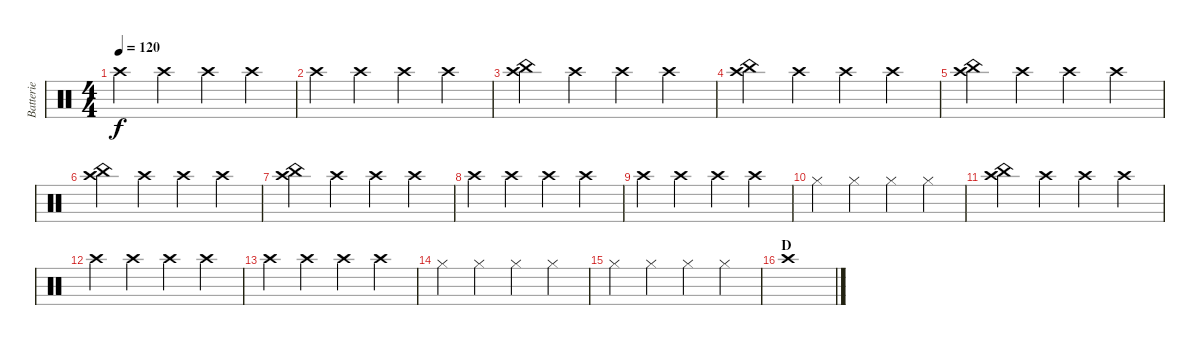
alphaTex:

\track ("Batterie" "Batterie") {instrument percussion}
\staff {score}
\articulation defaults
\ts (4 4)
\tempo 120
\clef neutral
\ks c "Crash high (hit)".4{dy f} "Crash high (hit)".4 "Crash high (hit)".4 "Crash high (hit)".4
|
"Crash high (hit)".4 "Crash high (hit)".4 "Crash high (hit)".4 "Crash high (hit)".4 |
("China (hit)" "Crash high (hit)").4 "Crash high (hit)".4 "Crash high (hit)".4 "Crash high (hit)".4 |
("China (hit)" "Crash high (hit)").4 "Crash high (hit)".4 "Crash high (hit)".4 "Crash high (hit)".4 |
("China (hit)" "Crash high (hit)").4 "Crash high (hit)".4 "Crash high (hit)".4 "Crash high (hit)".4 |
("China (hit)" "Crash high (hit)").4 "Crash high (hit)".4 "Crash high (hit)".4 "Crash high (hit)".4 |
("China (hit)" "Crash high (hit)").4 "Crash high (hit)".4 "Crash high (hit)".4 "Crash high (hit)".4 |
"Crash high (hit)".4 "Crash high (hit)".4 "Crash high (hit)".4 "Crash high (hit)".4 |
"Crash high (hit)".4 "Crash high (hit)".4 "Crash high (hit)".4 "Crash high (hit)".4 |
"Hi-Hat (closed)".4 "Hi-Hat (closed)".4 "Hi-Hat (closed)".4 "Hi-Hat (closed)".4 |
("China (hit)" "Crash high (hit)").4 "Crash high (hit)".4 "Crash high (hit)".4 "Crash high (hit)".4 |
"Crash high (hit)".4 "Crash high (hit)".4 "Crash high (hit)".4 "Crash high (hit)".4 |
"Crash high (hit)".4 "Crash high (hit)".4 "Crash high (hit)".4 "Crash high (hit)".4 |
"Hi-Hat (closed)".4 "Hi-Hat (closed)".4 "Hi-Hat (closed)".4 "Hi-Hat (closed)".4 |
"Hi-Hat (closed)".4 "Hi-Hat (closed)".4 "Hi-Hat (closed)".4 "Hi-Hat (closed)".4 |
\section ("" "D")
"Crash high (hit)".1
